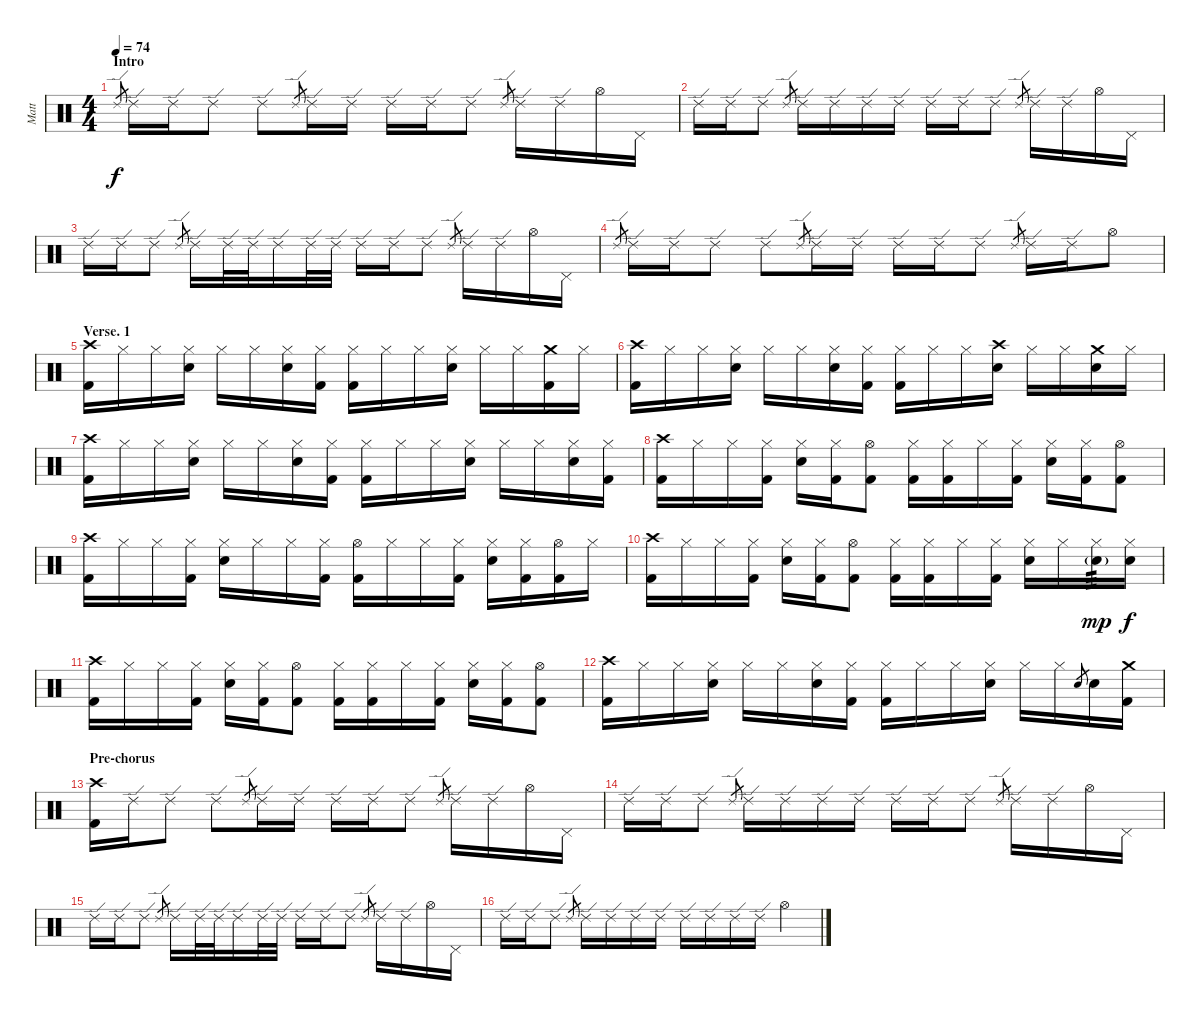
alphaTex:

\track ("Matt" "Matt") {instrument percussion}
\staff {score}
\articulation defaults
\ts (4 4)
\section ("" "Intro")
\tempo 74
\clef neutral
\ks c "Ride (edge) 2".8{gr dy f} "Ride (edge) 2".16 "Ride (edge) 2".16 "Ride (edge) 2".8 "Ride (edge) 2".8 "Ride (edge) 2".8{gr} "Ride (edge) 2".16 "Ride (edge) 2".16 "Ride (edge) 2".16 "Ride (edge) 2".16 "Ride (edge) 2".8 "Ride (edge) 2".8{gr} "Ride (edge) 2".16 "Ride (edge) 2".16 "Hi-Hat (open)".16 "Pedal Hi-Hat (hit)".16
|
"Ride (edge) 2".16 "Ride (edge) 2".16 "Ride (edge) 2".8 "Ride (edge) 2".8{gr} "Ride (edge) 2".16 "Ride (edge) 2".16 "Ride (edge) 2".16 "Ride (edge) 2".16 "Ride (edge) 2".16 "Ride (edge) 2".16 "Ride (edge) 2".8 "Ride (edge) 2".8{gr} "Ride (edge) 2".16 "Ride (edge) 2".16 "Hi-Hat (open)".16 "Pedal Hi-Hat (hit)".16 |
"Ride (edge) 2".16 "Ride (edge) 2".16 "Ride (edge) 2".8 "Ride (edge) 2".8{gr} "Ride (edge) 2".16 "Ride (edge) 2".32 "Ride (edge) 2".32 "Ride (edge) 2".16 "Ride (edge) 2".32 "Ride (edge) 2".32 "Ride (edge) 2".16 "Ride (edge) 2".16 "Ride (edge) 2".8 "Ride (edge) 2".8{gr} "Ride (edge) 2".16 "Ride (edge) 2".16 "Hi-Hat (open)".16 "Pedal Hi-Hat (hit)".16 |
"Ride (edge) 2".8{gr} "Ride (edge) 2".16 "Ride (edge) 2".16 "Ride (edge) 2".8 "Ride (edge) 2".8 "Ride (edge) 2".8{gr} "Ride (edge) 2".16 "Ride (edge) 2".16 "Ride (edge) 2".16 "Ride (edge) 2".16 "Ride (edge) 2".8 "Ride (edge) 2".8{gr} "Ride (edge) 2".16 "Ride (edge) 2".16 "Hi-Hat (open)".8 |
\section ("" "Verse. 1")
("Crash high (hit)" "Kick (hit) 2").16 "Hi-Hat (closed)".16 "Hi-Hat (closed)".16 ("Hi-Hat (closed)" "Electric Snare (hit)").16 "Hi-Hat (closed)".16 "Hi-Hat (closed)".16 ("Hi-Hat (closed)" "Electric Snare (hit)").16 ("Hi-Hat (closed)" "Kick (hit) 2").16 ("Hi-Hat (closed)" "Kick (hit) 2").16 "Hi-Hat (closed)".16 "Hi-Hat (closed)".16 ("Hi-Hat (closed)" "Electric Snare (hit)").16 "Hi-Hat (closed)".16 "Hi-Hat (closed)".16 ("Crash medium (hit)" "Kick (hit) 2").16 "Hi-Hat (closed)".16 |
("Crash high (hit)" "Kick (hit) 2").16 "Hi-Hat (closed)".16 "Hi-Hat (closed)".16 ("Hi-Hat (closed)" "Electric Snare (hit)").16 "Hi-Hat (closed)".16 "Hi-Hat (closed)".16 ("Hi-Hat (closed)" "Electric Snare (hit)").16 ("Hi-Hat (closed)" "Kick (hit) 2").16 ("Hi-Hat (closed)" "Kick (hit) 2").16 "Hi-Hat (closed)".16 "Hi-Hat (closed)".16 ("Crash high (hit)" "Electric Snare (hit)").16 "Hi-Hat (closed)".16 "Hi-Hat (closed)".16 ("Crash medium (hit)" "Electric Snare (hit)").16 "Hi-Hat (closed)".16 |
("Crash high (hit)" "Kick (hit) 2").16 "Hi-Hat (closed)".16 "Hi-Hat (closed)".16 ("Hi-Hat (closed)" "Electric Snare (hit)").16 "Hi-Hat (closed)".16 "Hi-Hat (closed)".16 ("Hi-Hat (closed)" "Electric Snare (hit)").16 ("Hi-Hat (closed)" "Kick (hit) 2").16 ("Hi-Hat (closed)" "Kick (hit) 2").16 "Hi-Hat (closed)".16 "Hi-Hat (closed)".16 ("Hi-Hat (closed)" "Electric Snare (hit)").16 "Hi-Hat (closed)".16 "Hi-Hat (closed)".16 ("Hi-Hat (closed)" "Electric Snare (hit)").16 ("Hi-Hat (closed)" "Kick (hit) 2").16 |
("Crash high (hit)" "Kick (hit) 2").16 "Hi-Hat (closed)".16 "Hi-Hat (closed)".16 ("Hi-Hat (closed)" "Kick (hit) 2").16 ("Hi-Hat (closed)" "Electric Snare (hit)").16 ("Hi-Hat (closed)" "Kick (hit) 2").16 ("Hi-Hat (open)" "Kick (hit) 2").8 ("Hi-Hat (closed)" "Kick (hit) 2").16 ("Hi-Hat (closed)" "Kick (hit) 2").16 "Hi-Hat (closed)".16 ("Hi-Hat (closed)" "Kick (hit) 2").16 ("Hi-Hat (closed)" "Electric Snare (hit)").16 ("Hi-Hat (closed)" "Kick (hit) 2").16 ("Hi-Hat (open)" "Kick (hit) 2").8 |
("Crash high (hit)" "Kick (hit) 2").16 "Hi-Hat (closed)".16 "Hi-Hat (closed)".16 ("Hi-Hat (closed)" "Kick (hit) 2").16 ("Hi-Hat (closed)" "Electric Snare (hit)").16 "Hi-Hat (closed)".16 "Hi-Hat (closed)".16 ("Hi-Hat (closed)" "Kick (hit) 2").16 ("Hi-Hat (open)" "Kick (hit) 2").16 "Hi-Hat (closed)".16 "Hi-Hat (closed)".16 ("Hi-Hat (closed)" "Kick (hit) 2").16 ("Hi-Hat (closed)" "Electric Snare (hit)").16 ("Hi-Hat (closed)" "Kick (hit) 2").16 ("Hi-Hat (open)" "Kick (hit) 2").16 "Hi-Hat (closed)".16 |
("Crash high (hit)" "Kick (hit) 2").16 "Hi-Hat (closed)".16 "Hi-Hat (closed)".16 ("Hi-Hat (closed)" "Kick (hit) 2").16 ("Hi-Hat (closed)" "Electric Snare (hit)").16 ("Hi-Hat (closed)" "Kick (hit) 2").16 ("Hi-Hat (open)" "Kick (hit) 2").8 ("Hi-Hat (closed)" "Kick (hit) 2").16 ("Hi-Hat (closed)" "Kick (hit) 2").16 "Hi-Hat (closed)".16 ("Hi-Hat (closed)" "Kick (hit) 2").16 ("Hi-Hat (closed)" "Electric Snare (hit)").16 "Hi-Hat (closed)".16 ("Hi-Hat (closed)" "Electric Snare (hit)"{g}).16{tp 3 dy mp} ("Hi-Hat (closed)" "Electric Snare (hit)").16{dy f} |
("Crash high (hit)" "Kick (hit) 2").16 "Hi-Hat (closed)".16 "Hi-Hat (closed)".16 ("Hi-Hat (closed)" "Kick (hit) 2").16 ("Hi-Hat (closed)" "Electric Snare (hit)").16 ("Hi-Hat (closed)" "Kick (hit) 2").16 ("Hi-Hat (open)" "Kick (hit) 2").8 ("Hi-Hat (closed)" "Kick (hit) 2").16 ("Hi-Hat (closed)" "Kick (hit) 2").16 "Hi-Hat (closed)".16 ("Hi-Hat (closed)" "Kick (hit) 2").16 ("Hi-Hat (closed)" "Electric Snare (hit)").16 ("Hi-Hat (closed)" "Kick (hit) 2").16 ("Hi-Hat (open)" "Kick (hit) 2").8 |
("Crash high (hit)" "Kick (hit) 2").16 "Hi-Hat (closed)".16 "Hi-Hat (closed)".16 ("Hi-Hat (closed)" "Electric Snare (hit)").16 "Hi-Hat (closed)".16 "Hi-Hat (closed)".16 ("Hi-Hat (closed)" "Electric Snare (hit)").16 ("Hi-Hat (closed)" "Kick (hit) 2").16 ("Hi-Hat (closed)" "Kick (hit) 2").16 "Hi-Hat (closed)".16 "Hi-Hat (closed)".16 ("Hi-Hat (closed)" "Electric Snare (hit)").16 "Hi-Hat (closed)".16 "Hi-Hat (closed)".16 "Electric Snare (hit)".8{gr} "Electric Snare (hit)".16 ("Crash medium (hit)" "Kick (hit) 2").16 |
\section ("" "Pre-chorus")
("Crash high (hit)" "Kick (hit) 2").16 "Ride (edge) 2".16 "Ride (edge) 2".8 "Ride (edge) 2".8 "Ride (edge) 2".8{gr} "Ride (edge) 2".16 "Ride (edge) 2".16 "Ride (edge) 2".16 "Ride (edge) 2".16 "Ride (edge) 2".8 "Ride (edge) 2".8{gr} "Ride (edge) 2".16 "Ride (edge) 2".16 "Hi-Hat (open)".16 "Pedal Hi-Hat (hit)".16 |
"Ride (edge) 2".16 "Ride (edge) 2".16 "Ride (edge) 2".8 "Ride (edge) 2".8{gr} "Ride (edge) 2".16 "Ride (edge) 2".16 "Ride (edge) 2".16 "Ride (edge) 2".16 "Ride (edge) 2".16 "Ride (edge) 2".16 "Ride (edge) 2".8 "Ride (edge) 2".8{gr} "Ride (edge) 2".16 "Ride (edge) 2".16 "Hi-Hat (open)".16 "Pedal Hi-Hat (hit)".16 |
"Ride (edge) 2".16 "Ride (edge) 2".16 "Ride (edge) 2".8 "Ride (edge) 2".8{gr} "Ride (edge) 2".16 "Ride (edge) 2".32 "Ride (edge) 2".32 "Ride (edge) 2".16 "Ride (edge) 2".32 "Ride (edge) 2".32 "Ride (edge) 2".16 "Ride (edge) 2".16 "Ride (edge) 2".8 "Ride (edge) 2".8{gr} "Ride (edge) 2".16 "Ride (edge) 2".16 "Hi-Hat (open)".16 "Pedal Hi-Hat (hit)".16 |
"Ride (edge) 2".16 "Ride (edge) 2".16 "Ride (edge) 2".8 "Ride (edge) 2".8{gr} "Ride (edge) 2".16 "Ride (edge) 2".16 "Ride (edge) 2".16 "Ride (edge) 2".16 "Ride (edge) 2".16 "Ride (edge) 2".16 "Ride (edge) 2".16 "Ride (edge) 2".16 "Hi-Hat (open)".4
